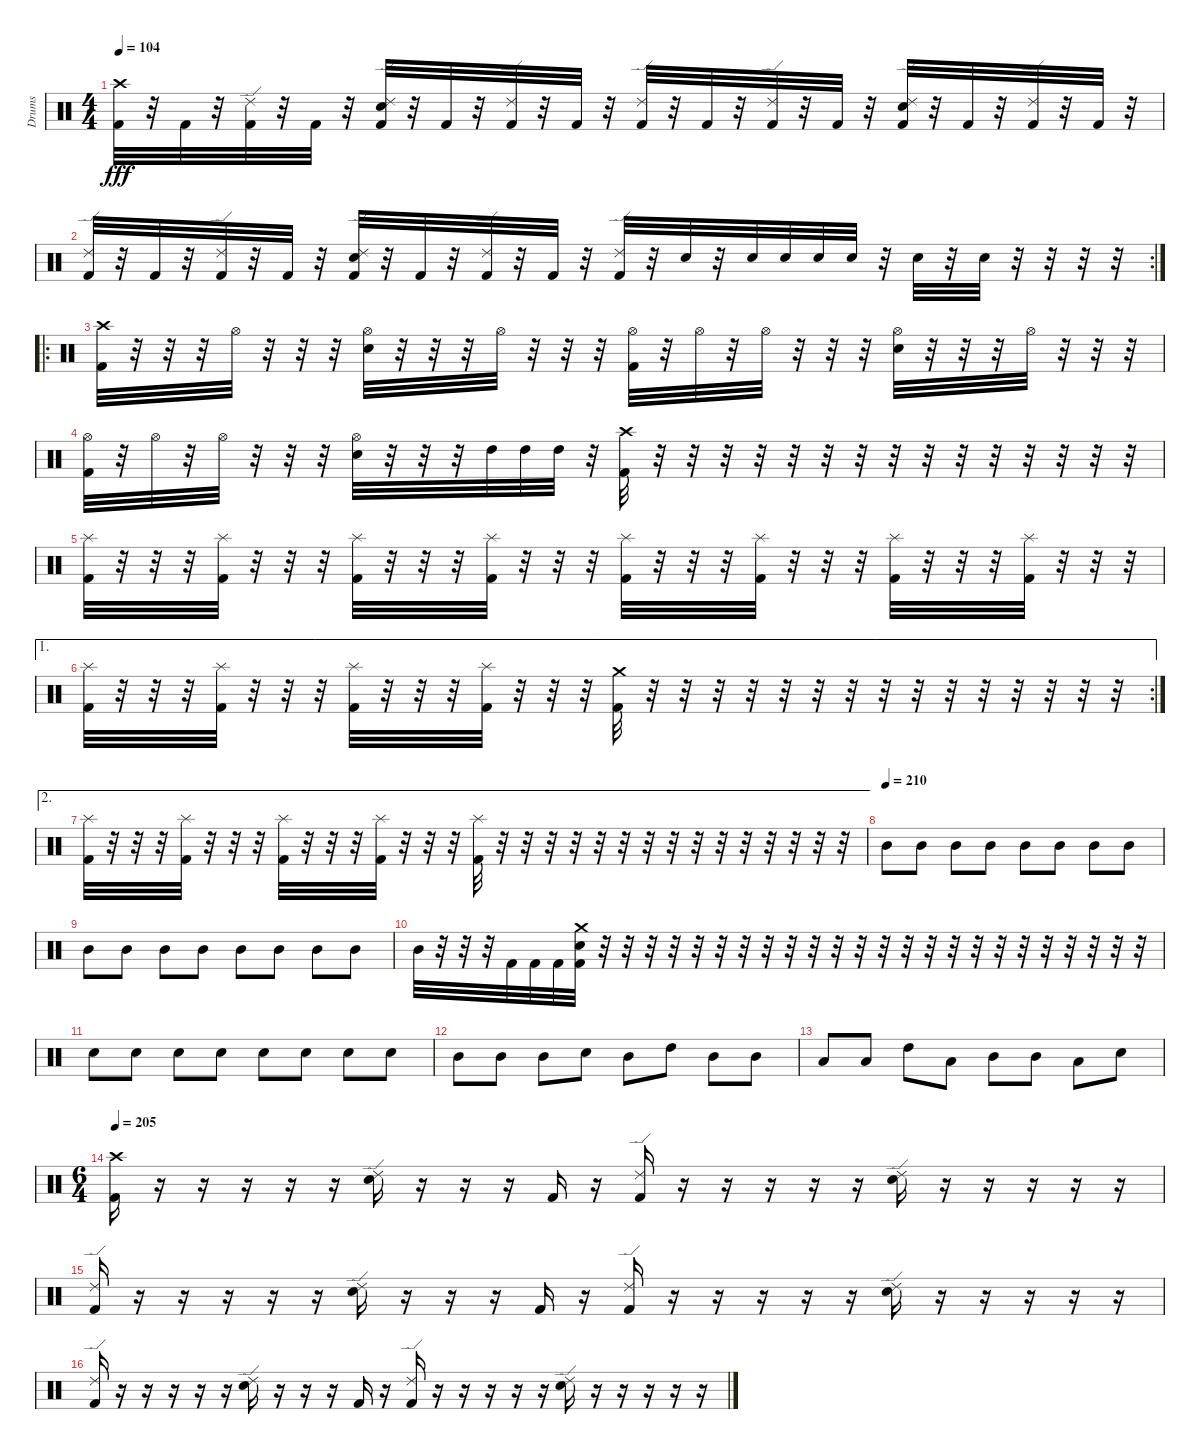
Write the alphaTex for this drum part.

\track ("Drums" "Drums") {instrument percussion}
\staff {score}
\articulation defaults
\ts (4 4)
\tempo 104
\clef neutral
\ks c
("Crash high (hit)" "Kick (hit) 2").32{dy fff} r.32 "Kick (hit) 2".32 r.32 ("Ride (edge) 2" "Kick (hit) 2").32 r.32 "Kick (hit) 2".32 r.32 ("Ride (edge) 2" "Snare (hit) 2" "Kick (hit) 2").32 r.32 "Kick (hit) 2".32 r.32 ("Ride (edge) 2" "Kick (hit) 2").32 r.32 "Kick (hit) 2".32 r.32 ("Ride (edge) 2" "Kick (hit) 2").32 r.32 "Kick (hit) 2".32 r.32 ("Ride (edge) 2" "Kick (hit) 2").32 r.32 "Kick (hit) 2".32 r.32 ("Ride (edge) 2" "Snare (hit) 2" "Kick (hit) 2").32 r.32 "Kick (hit) 2".32 r.32 ("Ride (edge) 2" "Kick (hit) 2").32 r.32 "Kick (hit) 2".32 r.32 |
\rc 2
("Ride (edge) 2" "Kick (hit) 2").32 r.32 "Kick (hit) 2".32 r.32 ("Ride (edge) 2" "Kick (hit) 2").32 r.32 "Kick (hit) 2".32 r.32 ("Ride (edge) 2" "Snare (hit) 2" "Kick (hit) 2").32 r.32 "Kick (hit) 2".32 r.32 ("Ride (edge) 2" "Kick (hit) 2").32 r.32 "Kick (hit) 2".32 r.32 ("Ride (edge) 2" "Kick (hit) 2").32 r.32 "Snare (hit) 2".32 r.32 "Snare (hit) 2".32 "Snare (hit) 2".32 "Snare (hit) 2".32 "Snare (hit) 2".32 r.32 "Snare (hit) 2".32 r.32 "Snare (hit) 2".32 r.32 r.32 r.32 r.32 |
\ro
("Crash high (hit)" "Kick (hit) 2").32 r.32 r.32 r.32 "Hi-Hat (open)".32 r.32 r.32 r.32 ("Hi-Hat (open)" "Snare (hit) 2").32 r.32 r.32 r.32 "Hi-Hat (open)".32 r.32 r.32 r.32 ("Hi-Hat (open)" "Kick (hit) 2").32 r.32 "Hi-Hat (open)".32 r.32 "Hi-Hat (open)".32 r.32 r.32 r.32 ("Hi-Hat (open)" "Snare (hit) 2").32 r.32 r.32 r.32 "Hi-Hat (open)".32 r.32 r.32 r.32 |
("Hi-Hat (open)" "Kick (hit) 2").32 r.32 "Hi-Hat (open)".32 r.32 "Hi-Hat (open)".32 r.32 r.32 r.32 ("Hi-Hat (open)" "Snare (hit) 2").32 r.32 r.32 r.32 "High Tom (hit)".32 "High Tom (hit)".32 "High Tom (hit)".32 r.32 ("Crash high (hit)" "Kick (hit) 2").32 r.32 r.32 r.32 r.32 r.32 r.32 r.32 r.32 r.32 r.32 r.32 r.32 r.32 r.32 r.32 |
("Splash (hit)" "Kick (hit) 2").32 r.32 r.32 r.32 ("Splash (hit)" "Kick (hit) 2").32 r.32 r.32 r.32 ("Splash (hit)" "Kick (hit) 2").32 r.32 r.32 r.32 ("Splash (hit)" "Kick (hit) 2").32 r.32 r.32 r.32 ("Splash (hit)" "Kick (hit) 2").32 r.32 r.32 r.32 ("Splash (hit)" "Kick (hit) 2").32 r.32 r.32 r.32 ("Splash (hit)" "Kick (hit) 2").32 r.32 r.32 r.32 ("Splash (hit)" "Kick (hit) 2").32 r.32 r.32 r.32 |
\ae 1
\rc 2
("Splash (hit)" "Kick (hit) 2").32 r.32 r.32 r.32 ("Splash (hit)" "Kick (hit) 2").32 r.32 r.32 r.32 ("Splash (hit)" "Kick (hit) 2").32 r.32 r.32 r.32 ("Splash (hit)" "Kick (hit) 2").32 r.32 r.32 r.32 ("Crash medium (hit)" "Kick (hit) 2").32 r.32 r.32 r.32 r.32 r.32 r.32 r.32 r.32 r.32 r.32 r.32 r.32 r.32 r.32 r.32 |
\ae 2
("Splash (hit)" "Kick (hit) 2").32 r.32 r.32 r.32 ("Splash (hit)" "Kick (hit) 2").32 r.32 r.32 r.32 ("Splash (hit)" "Kick (hit) 2").32 r.32 r.32 r.32 ("Splash (hit)" "Kick (hit) 2").32 r.32 r.32 r.32 ("Splash (hit)" "Kick (hit) 2").32 r.32 r.32 r.32 r.32 r.32 r.32 r.32 r.32 r.32 r.32 r.32 r.32 r.32 r.32 r.32 |
\tempo (210)
"Mid Tom (hit)".8 "Mid Tom (hit)".8 "Mid Tom (hit)".8 "Mid Tom (hit)".8 "Mid Tom (hit)".8 "Mid Tom (hit)".8 "Mid Tom (hit)".8 "Mid Tom (hit)".8 |
"Mid Tom (hit)".8 "Mid Tom (hit)".8 "Mid Tom (hit)".8 "Mid Tom (hit)".8 "Mid Tom (hit)".8 "Mid Tom (hit)".8 "Mid Tom (hit)".8 "Mid Tom (hit)".8 |
"Mid Tom (hit)".32 r.32 r.32 r.32 "Kick (hit) 2".32 "Kick (hit) 2".32 "Kick (hit) 2".32 ("Crash medium (hit)" "Snare (hit) 2" "Kick (hit) 2").32 r.32 r.32 r.32 r.32 r.32 r.32 r.32 r.32 r.32 r.32 r.32 r.32 r.32 r.32 r.32 r.32 r.32 r.32 r.32 r.32 r.32 r.32 r.32 r.32 |
"Snare (hit) 2".8 "Snare (hit) 2".8 "Snare (hit) 2".8 "Snare (hit) 2".8 "Snare (hit) 2".8 "Snare (hit) 2".8 "Snare (hit) 2".8 "Snare (hit) 2".8 |
"Mid Tom (hit)".8 "Mid Tom (hit)".8 "Mid Tom (hit)".8 "Snare (hit) 2".8 "Mid Tom (hit)".8 "High Tom (hit)".8 "Mid Tom (hit)".8 "Mid Tom (hit)".8 |
"Low Tom (hit)".8 "Low Tom (hit)".8 "High Tom (hit)".8 "Low Tom (hit)".8 "Mid Tom (hit)".8 "Mid Tom (hit)".8 "Low Tom (hit)".8 "Snare (hit) 2".8 |
\ts (6 4)
\tempo 205
("Crash high (hit)" "Kick (hit) 2").16 r.16 r.16 r.16 r.16 r.16 ("Ride (edge) 2" "Snare (hit) 2").16 r.16 r.16 r.16 "Kick (hit) 2".16 r.16 ("Ride (edge) 2" "Kick (hit) 2").16 r.16 r.16 r.16 r.16 r.16 ("Ride (edge) 2" "Snare (hit) 2").16 r.16 r.16 r.16 r.16 r.16 |
("Ride (edge) 2" "Kick (hit) 2").16 r.16 r.16 r.16 r.16 r.16 ("Ride (edge) 2" "Snare (hit) 2").16 r.16 r.16 r.16 "Kick (hit) 2".16 r.16 ("Ride (edge) 2" "Kick (hit) 2").16 r.16 r.16 r.16 r.16 r.16 ("Ride (edge) 2" "Snare (hit) 2").16 r.16 r.16 r.16 r.16 r.16 |
("Ride (edge) 2" "Kick (hit) 2").16 r.16 r.16 r.16 r.16 r.16 ("Ride (edge) 2" "Snare (hit) 2").16 r.16 r.16 r.16 "Kick (hit) 2".16 r.16 ("Ride (edge) 2" "Kick (hit) 2").16 r.16 r.16 r.16 r.16 r.16 ("Ride (edge) 2" "Snare (hit) 2").16 r.16 r.16 r.16 r.16 r.16
